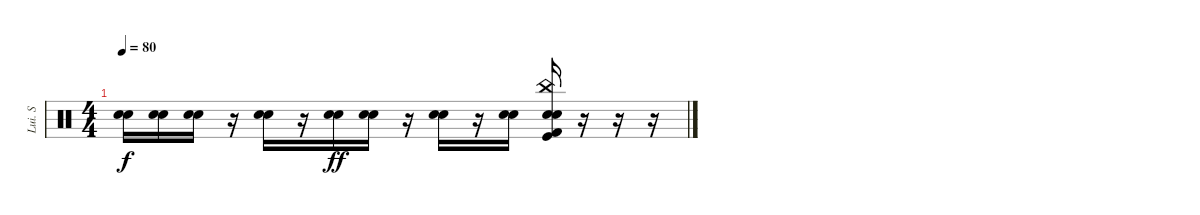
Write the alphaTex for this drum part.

\track ("Lui. S" "Lui. S") {instrument percussion}
\staff {score}
\articulation defaults
\ts (4 4)
\tempo 80
\clef neutral
\ks c
("Electric Snare (hit)" "Snare (hit) 2").16{dy f} ("Electric Snare (hit)" "Snare (hit) 2").16 ("Electric Snare (hit)" "Snare (hit) 2").16 r.16 ("Electric Snare (hit)" "Snare (hit) 2").16 r.16 ("Electric Snare (hit)" "Snare (hit) 2").16{dy ff} ("Electric Snare (hit)" "Snare (hit) 2").16 r.16 ("Electric Snare (hit)" "Snare (hit) 2").16 r.16 ("Electric Snare (hit)" "Snare (hit) 2").16 ("China (hit)" "Electric Snare (hit)" "Snare (hit) 2" "Kick (hit)" "Kick (hit) 2").16 r.16 r.16 r.16
